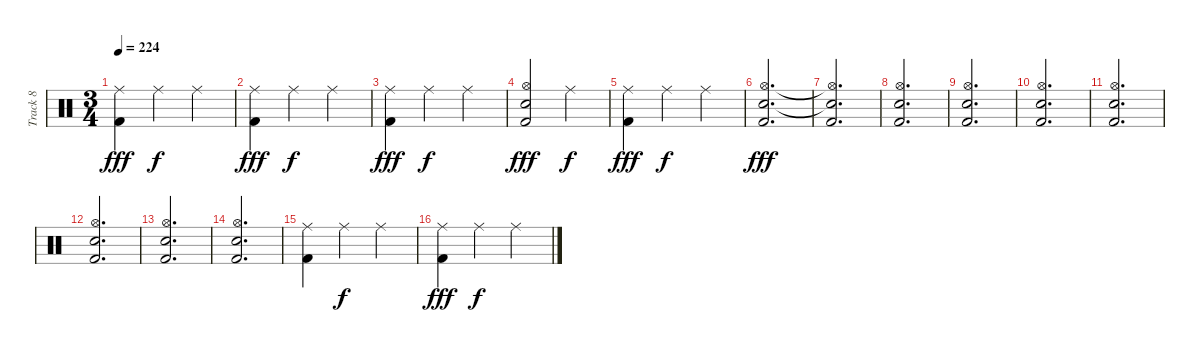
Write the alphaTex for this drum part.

\track ("Track 8" "Track 8") {instrument percussion}
\staff {score}
\articulation defaults
\ts (3 4)
\tempo 224
\clef neutral
\ks c
("Ride (middle)" "Kick (hit) 2").4{dy fff} "Ride (middle)".4{dy f} "Ride (middle)".4 |
("Ride (middle)" "Kick (hit) 2").4{dy fff} "Ride (middle)".4{dy f} "Ride (middle)".4 |
("Ride (middle)" "Kick (hit) 2").4{dy fff} "Ride (middle)".4{dy f} "Ride (middle)".4 |
("Hi-Hat (open)" "Kick (hit) 2" "Snare (hit)").2{dy fff} "Ride (middle)".4{dy f} |
("Ride (middle)" "Kick (hit) 2").4{dy fff} "Ride (middle)".4{dy f} "Ride (middle)".4 |
("Hi-Hat (open)" "Kick (hit) 2" "Snare (hit)").2{d dy fff} |
("Hi-Hat (open)"{t} "Kick (hit) 2" "Snare (hit)"{t}).2{d} |
("Hi-Hat (open)" "Kick (hit) 2" "Snare (hit)").2{d} |
("Hi-Hat (open)" "Kick (hit) 2" "Snare (hit)").2{d} |
("Hi-Hat (open)" "Kick (hit) 2" "Snare (hit)").2{d} |
("Hi-Hat (open)" "Kick (hit) 2" "Snare (hit)").2{d} |
("Hi-Hat (open)" "Kick (hit) 2" "Snare (hit)").2{d} |
("Hi-Hat (open)" "Kick (hit) 2" "Snare (hit)").2{d} |
("Hi-Hat (open)" "Kick (hit) 2" "Snare (hit)").2{d} |
("Ride (middle)" "Kick (hit) 2").4 "Ride (middle)".4{dy f} "Ride (middle)".4 |
("Ride (middle)" "Kick (hit) 2").4{dy fff} "Ride (middle)".4{dy f} "Ride (middle)".4
